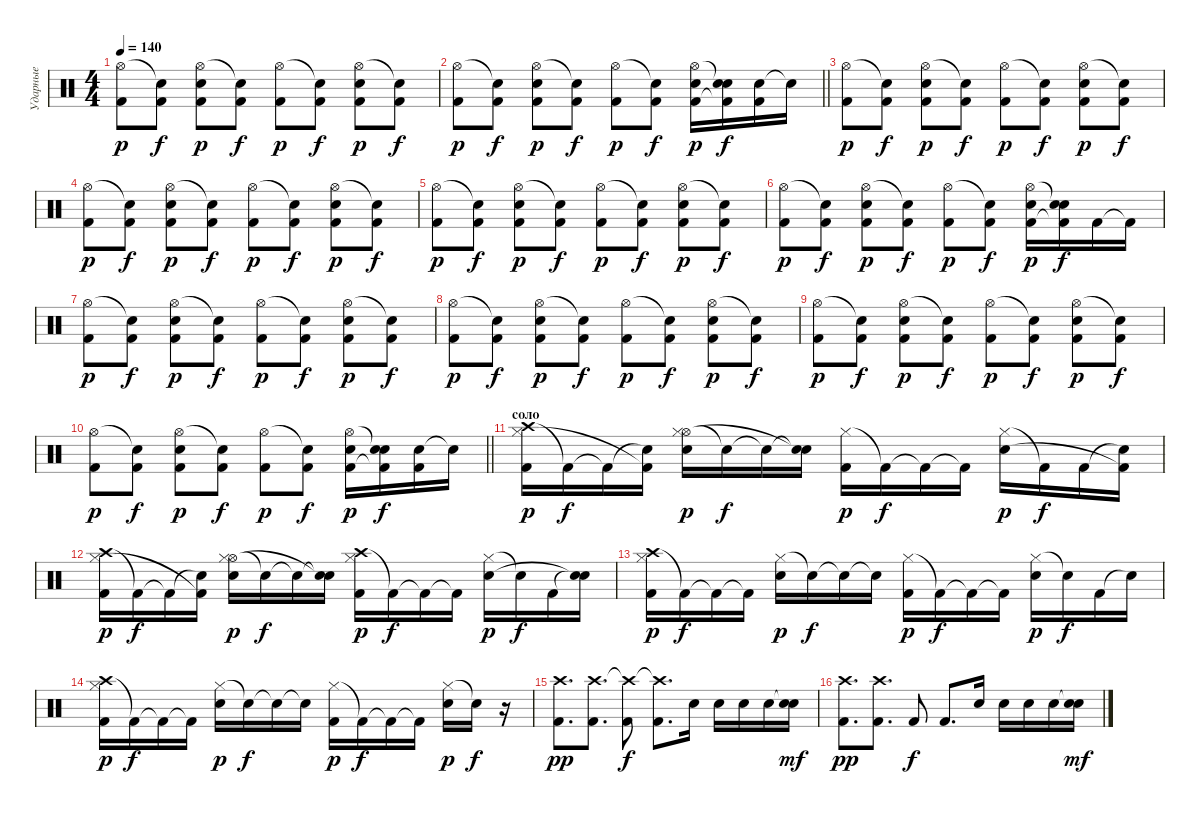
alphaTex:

\track ("Ударные" "Ударные") {instrument percussion}
\staff {score}
\articulation defaults
\ts (4 4)
\tempo 140
\clef neutral
\ks c
("Hi-Hat (open)" "Kick (hit) 2").8{dy p} ("Snare (hit)"{t} "Kick (hit) 2").8{dy f} ("Hi-Hat (open)" "Electric Snare (hit)" "Kick (hit) 2").8{dy p} ("Snare (hit)"{t} "Kick (hit) 2").8{dy f} ("Hi-Hat (open)" "Kick (hit) 2").8{dy p} ("Snare (hit)"{t} "Kick (hit) 2").8{dy f} ("Hi-Hat (open)" "Electric Snare (hit)" "Kick (hit) 2").8{dy p} ("Snare (hit)"{t} "Kick (hit) 2").8{dy f} |
\barLineRight lightlight
("Hi-Hat (open)" "Kick (hit) 2").8{dy p} ("Snare (hit)"{t} "Kick (hit) 2").8{dy f} ("Hi-Hat (open)" "Electric Snare (hit)" "Kick (hit) 2").8{dy p} ("Snare (hit)"{t} "Kick (hit) 2").8{dy f} ("Hi-Hat (open)" "Kick (hit) 2").8{dy p} ("Snare (hit)"{t} "Kick (hit) 2").8{dy f} ("Hi-Hat (open)" "Electric Snare (hit)" "Kick (hit) 2").16{dy p} ("Snare (hit)"{t} "Electric Snare (hit)" "Kick (hit) 2"{t}).16{dy f} ("Electric Snare (hit)" "Kick (hit) 2").16 "Snare (hit)"{t}.16 |
("Hi-Hat (open)" "Kick (hit) 2").8{dy p} ("Snare (hit)"{t} "Kick (hit) 2").8{dy f} ("Hi-Hat (open)" "Electric Snare (hit)" "Kick (hit) 2").8{dy p} ("Snare (hit)"{t} "Kick (hit) 2").8{dy f} ("Hi-Hat (open)" "Kick (hit) 2").8{dy p} ("Snare (hit)"{t} "Kick (hit) 2").8{dy f} ("Hi-Hat (open)" "Electric Snare (hit)" "Kick (hit) 2").8{dy p} ("Snare (hit)"{t} "Kick (hit) 2").8{dy f} |
("Hi-Hat (open)" "Kick (hit) 2").8{dy p} ("Snare (hit)"{t} "Kick (hit) 2").8{dy f} ("Hi-Hat (open)" "Electric Snare (hit)" "Kick (hit) 2").8{dy p} ("Snare (hit)"{t} "Kick (hit) 2").8{dy f} ("Hi-Hat (open)" "Kick (hit) 2").8{dy p} ("Snare (hit)"{t} "Kick (hit) 2").8{dy f} ("Hi-Hat (open)" "Electric Snare (hit)" "Kick (hit) 2").8{dy p} ("Snare (hit)"{t} "Kick (hit) 2").8{dy f} |
("Hi-Hat (open)" "Kick (hit) 2").8{dy p} ("Snare (hit)"{t} "Kick (hit) 2").8{dy f} ("Hi-Hat (open)" "Electric Snare (hit)" "Kick (hit) 2").8{dy p} ("Snare (hit)"{t} "Kick (hit) 2").8{dy f} ("Hi-Hat (open)" "Kick (hit) 2").8{dy p} ("Snare (hit)"{t} "Kick (hit) 2").8{dy f} ("Hi-Hat (open)" "Electric Snare (hit)" "Kick (hit) 2").8{dy p} ("Snare (hit)"{t} "Kick (hit) 2").8{dy f} |
("Hi-Hat (open)" "Kick (hit) 2").8{dy p} ("Snare (hit)"{t} "Kick (hit) 2").8{dy f} ("Hi-Hat (open)" "Electric Snare (hit)" "Kick (hit) 2").8{dy p} ("Snare (hit)"{t} "Kick (hit) 2").8{dy f} ("Hi-Hat (open)" "Kick (hit) 2").8{dy p} ("Snare (hit)"{t} "Kick (hit) 2").8{dy f} ("Hi-Hat (open)" "Electric Snare (hit)" "Kick (hit) 2").16{dy p} ("Snare (hit)"{t} "Electric Snare (hit)" "Kick (hit) 2"{t}).16{dy f} "Kick (hit) 2".16 "Kick (hit) 2"{t}.16 |
("Hi-Hat (open)" "Kick (hit) 2").8{dy p} ("Snare (hit)"{t} "Kick (hit) 2").8{dy f} ("Hi-Hat (open)" "Electric Snare (hit)" "Kick (hit) 2").8{dy p} ("Snare (hit)"{t} "Kick (hit) 2").8{dy f} ("Hi-Hat (open)" "Kick (hit) 2").8{dy p} ("Snare (hit)"{t} "Kick (hit) 2").8{dy f} ("Hi-Hat (open)" "Electric Snare (hit)" "Kick (hit) 2").8{dy p} ("Snare (hit)"{t} "Kick (hit) 2").8{dy f} |
("Hi-Hat (open)" "Kick (hit) 2").8{dy p} ("Snare (hit)"{t} "Kick (hit) 2").8{dy f} ("Hi-Hat (open)" "Electric Snare (hit)" "Kick (hit) 2").8{dy p} ("Snare (hit)"{t} "Kick (hit) 2").8{dy f} ("Hi-Hat (open)" "Kick (hit) 2").8{dy p} ("Snare (hit)"{t} "Kick (hit) 2").8{dy f} ("Hi-Hat (open)" "Electric Snare (hit)" "Kick (hit) 2").8{dy p} ("Snare (hit)"{t} "Kick (hit) 2").8{dy f} |
("Hi-Hat (open)" "Kick (hit) 2").8{dy p} ("Snare (hit)"{t} "Kick (hit) 2").8{dy f} ("Hi-Hat (open)" "Electric Snare (hit)" "Kick (hit) 2").8{dy p} ("Snare (hit)"{t} "Kick (hit) 2").8{dy f} ("Hi-Hat (open)" "Kick (hit) 2").8{dy p} ("Snare (hit)"{t} "Kick (hit) 2").8{dy f} ("Hi-Hat (open)" "Electric Snare (hit)" "Kick (hit) 2").8{dy p} ("Snare (hit)"{t} "Kick (hit) 2").8{dy f} |
\barLineRight lightlight
("Hi-Hat (open)" "Kick (hit) 2").8{dy p} ("Snare (hit)"{t} "Kick (hit) 2").8{dy f} ("Hi-Hat (open)" "Electric Snare (hit)" "Kick (hit) 2").8{dy p} ("Snare (hit)"{t} "Kick (hit) 2").8{dy f} ("Hi-Hat (open)" "Kick (hit) 2").8{dy p} ("Snare (hit)"{t} "Kick (hit) 2").8{dy f} ("Hi-Hat (open)" "Electric Snare (hit)" "Kick (hit) 2").16{dy p} ("Snare (hit)"{t} "Electric Snare (hit)" "Kick (hit) 2"{t}).16{dy f} ("Electric Snare (hit)" "Kick (hit) 2").16 "Snare (hit)"{t}.16 |
\section ("" "соло")
("Crash high (hit)" "Hi-Hat (closed)" "Kick (hit) 2").16{dy p} "Kick (hit) 2"{t}.16{dy f} "Kick (hit) 2"{t}.16 ("Snare (hit)"{t} "Kick (hit) 2"{t}).16 ("Hi-Hat (open)" "Hi-Hat (closed)" "Electric Snare (hit)").16{dy p} "Snare (hit)"{t}.16{dy f} "Snare (hit)"{t}.16 ("Snare (hit)"{t} "Snare (hit)"{t}).16 ("Hi-Hat (closed)" "Kick (hit) 2").16{dy p} "Kick (hit) 2"{t}.16{dy f} "Kick (hit) 2"{t}.16 "Kick (hit) 2"{t}.16 ("Hi-Hat (closed)" "Electric Snare (hit)").16{dy p} "Kick (hit) 2"{t}.16{dy f} "Kick (hit) 2".16 ("Snare (hit)"{t} "Kick (hit) 2"{t}).16 |
("Crash high (hit)" "Hi-Hat (closed)" "Kick (hit) 2").16{dy p} "Kick (hit) 2"{t}.16{dy f} "Kick (hit) 2"{t}.16 ("Snare (hit)"{t} "Kick (hit) 2"{t}).16 ("Hi-Hat (open)" "Hi-Hat (closed)" "Electric Snare (hit)").16{dy p} "Snare (hit)"{t}.16{dy f} "Snare (hit)"{t}.16 ("Snare (hit)"{t} "Snare (hit)"{t}).16 ("Crash high (hit)" "Hi-Hat (closed)" "Kick (hit) 2").16{dy p} "Kick (hit) 2"{t}.16{dy f} "Kick (hit) 2"{t}.16 "Kick (hit) 2"{t}.16 ("Hi-Hat (closed)" "Electric Snare (hit)").16{dy p} "Snare (hit)"{t}.16{dy f} "Kick (hit) 2".16 ("Snare (hit)"{t} "Snare (hit)"{t}).16 |
("Crash high (hit)" "Hi-Hat (closed)" "Kick (hit) 2").16{dy p} "Kick (hit) 2"{t}.16{dy f} "Kick (hit) 2"{t}.16 "Kick (hit) 2"{t}.16 ("Hi-Hat (closed)" "Electric Snare (hit)").16{dy p} "Snare (hit)"{t}.16{dy f} "Snare (hit)"{t}.16 "Snare (hit)"{t}.16 ("Hi-Hat (closed)" "Kick (hit) 2").16{dy p} "Kick (hit) 2"{t}.16{dy f} "Kick (hit) 2"{t}.16 "Kick (hit) 2"{t}.16 ("Hi-Hat (closed)" "Electric Snare (hit)").16{dy p} "Snare (hit)"{t}.16{dy f} "Kick (hit) 2".16 "Snare (hit)"{t}.16 |
("Crash high (hit)" "Hi-Hat (closed)" "Kick (hit) 2").16{dy p} "Kick (hit) 2"{t}.16{dy f} "Kick (hit) 2"{t}.16 "Kick (hit) 2"{t}.16 ("Hi-Hat (closed)" "Electric Snare (hit)").16{dy p} "Snare (hit)"{t}.16{dy f} "Snare (hit)"{t}.16 "Snare (hit)"{t}.16 ("Hi-Hat (closed)" "Kick (hit) 2").16{dy p} "Kick (hit) 2"{t}.16{dy f} "Kick (hit) 2"{t}.16 "Kick (hit) 2"{t}.16 ("Hi-Hat (closed)" "Electric Snare (hit)").16{dy p} "Snare (hit)"{t}.16{dy f} r.16 |
("Crash high (hit)" "Kick (hit) 2").8{d dy pp} ("Crash high (hit)" "Kick (hit) 2").8{d} ("Crash high (hit)"{t} "Kick (hit) 2").8{dy f} ("Crash high (hit)"{t} "Kick (hit) 2").8{d} "Electric Snare (hit)".16 "Electric Snare (hit)".16 "Electric Snare (hit)".16 "Electric Snare (hit)".16 ("Snare (hit)"{t} "Electric Snare (hit)").16{dy mf} |
("Crash high (hit)" "Kick (hit) 2").8{d dy pp} ("Crash high (hit)" "Kick (hit) 2").8{d} "Kick (hit) 2".8{dy f} "Kick (hit) 2".8{d} "Electric Snare (hit)".16 "Electric Snare (hit)".16 "Electric Snare (hit)".16 "Electric Snare (hit)".16 ("Snare (hit)"{t} "Electric Snare (hit)").16{dy mf}
